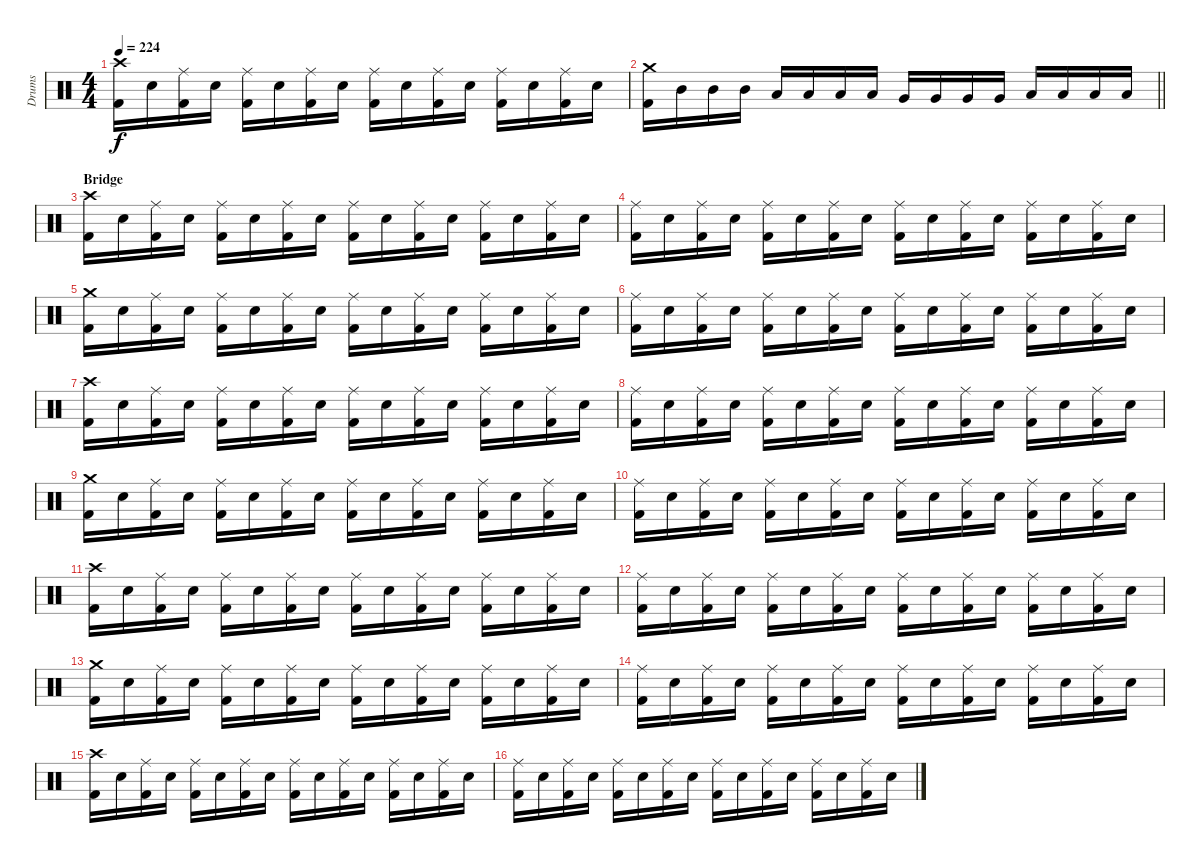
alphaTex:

\track ("Drums" "Drums") {instrument percussion}
\staff {score}
\articulation defaults
\ts (4 4)
\tempo 224
\clef neutral
\ks c
("Crash high (hit)" "Kick (hit) 2").16{dy f} "Electric Snare (hit)".16 ("Ride (middle)" "Kick (hit) 2").16 "Electric Snare (hit)".16 ("Ride (middle)" "Kick (hit) 2").16 "Electric Snare (hit)".16 ("Ride (middle)" "Kick (hit) 2").16 "Electric Snare (hit)".16 ("Ride (middle)" "Kick (hit) 2").16 "Electric Snare (hit)".16 ("Ride (middle)" "Kick (hit) 2").16 "Electric Snare (hit)".16 ("Ride (middle)" "Kick (hit) 2").16 "Electric Snare (hit)".16 ("Ride (middle)" "Kick (hit) 2").16 "Electric Snare (hit)".16 |
\barLineRight lightlight
("Crash medium (hit)" "Kick (hit) 2").16 "Mid Tom (hit)".16 "Mid Tom (hit)".16 "Mid Tom (hit)".16 "Low Tom (hit)".16 "Low Tom (hit)".16 "Low Tom (hit)".16 "Low Tom (hit)".16 "Very Low Tom (hit)".16 "Very Low Tom (hit)".16 "Very Low Tom (hit)".16 "Very Low Tom (hit)".16 "Low Floor Tom (hit)".16 "Low Floor Tom (hit)".16 "Low Floor Tom (hit)".16 "Low Floor Tom (hit)".16 |
\section ("" "Bridge")
("Crash high (hit)" "Kick (hit) 2").16 "Electric Snare (hit)".16 ("Ride (middle)" "Kick (hit) 2").16 "Electric Snare (hit)".16 ("Ride (middle)" "Kick (hit) 2").16 "Electric Snare (hit)".16 ("Ride (middle)" "Kick (hit) 2").16 "Electric Snare (hit)".16 ("Ride (middle)" "Kick (hit) 2").16 "Electric Snare (hit)".16 ("Ride (middle)" "Kick (hit) 2").16 "Electric Snare (hit)".16 ("Ride (middle)" "Kick (hit) 2").16 "Electric Snare (hit)".16 ("Ride (middle)" "Kick (hit) 2").16 "Electric Snare (hit)".16 |
("Ride (middle)" "Kick (hit) 2").16 "Electric Snare (hit)".16 ("Ride (middle)" "Kick (hit) 2").16 "Electric Snare (hit)".16 ("Ride (middle)" "Kick (hit) 2").16 "Electric Snare (hit)".16 ("Ride (middle)" "Kick (hit) 2").16 "Electric Snare (hit)".16 ("Ride (middle)" "Kick (hit) 2").16 "Electric Snare (hit)".16 ("Ride (middle)" "Kick (hit) 2").16 "Electric Snare (hit)".16 ("Ride (middle)" "Kick (hit) 2").16 "Electric Snare (hit)".16 ("Ride (middle)" "Kick (hit) 2").16 "Electric Snare (hit)".16 |
("Crash medium (hit)" "Kick (hit) 2").16 "Electric Snare (hit)".16 ("Ride (middle)" "Kick (hit) 2").16 "Electric Snare (hit)".16 ("Ride (middle)" "Kick (hit) 2").16 "Electric Snare (hit)".16 ("Ride (middle)" "Kick (hit) 2").16 "Electric Snare (hit)".16 ("Ride (middle)" "Kick (hit) 2").16 "Electric Snare (hit)".16 ("Ride (middle)" "Kick (hit) 2").16 "Electric Snare (hit)".16 ("Ride (middle)" "Kick (hit) 2").16 "Electric Snare (hit)".16 ("Ride (middle)" "Kick (hit) 2").16 "Electric Snare (hit)".16 |
("Ride (middle)" "Kick (hit) 2").16 "Electric Snare (hit)".16 ("Ride (middle)" "Kick (hit) 2").16 "Electric Snare (hit)".16 ("Ride (middle)" "Kick (hit) 2").16 "Electric Snare (hit)".16 ("Ride (middle)" "Kick (hit) 2").16 "Electric Snare (hit)".16 ("Ride (middle)" "Kick (hit) 2").16 "Electric Snare (hit)".16 ("Ride (middle)" "Kick (hit) 2").16 "Electric Snare (hit)".16 ("Ride (middle)" "Kick (hit) 2").16 "Electric Snare (hit)".16 ("Ride (middle)" "Kick (hit) 2").16 "Electric Snare (hit)".16 |
("Crash high (hit)" "Kick (hit) 2").16 "Electric Snare (hit)".16 ("Ride (middle)" "Kick (hit) 2").16 "Electric Snare (hit)".16 ("Ride (middle)" "Kick (hit) 2").16 "Electric Snare (hit)".16 ("Ride (middle)" "Kick (hit) 2").16 "Electric Snare (hit)".16 ("Ride (middle)" "Kick (hit) 2").16 "Electric Snare (hit)".16 ("Ride (middle)" "Kick (hit) 2").16 "Electric Snare (hit)".16 ("Ride (middle)" "Kick (hit) 2").16 "Electric Snare (hit)".16 ("Ride (middle)" "Kick (hit) 2").16 "Electric Snare (hit)".16 |
("Ride (middle)" "Kick (hit) 2").16 "Electric Snare (hit)".16 ("Ride (middle)" "Kick (hit) 2").16 "Electric Snare (hit)".16 ("Ride (middle)" "Kick (hit) 2").16 "Electric Snare (hit)".16 ("Ride (middle)" "Kick (hit) 2").16 "Electric Snare (hit)".16 ("Ride (middle)" "Kick (hit) 2").16 "Electric Snare (hit)".16 ("Ride (middle)" "Kick (hit) 2").16 "Electric Snare (hit)".16 ("Ride (middle)" "Kick (hit) 2").16 "Electric Snare (hit)".16 ("Ride (middle)" "Kick (hit) 2").16 "Electric Snare (hit)".16 |
("Crash medium (hit)" "Kick (hit) 2").16 "Electric Snare (hit)".16 ("Ride (middle)" "Kick (hit) 2").16 "Electric Snare (hit)".16 ("Ride (middle)" "Kick (hit) 2").16 "Electric Snare (hit)".16 ("Ride (middle)" "Kick (hit) 2").16 "Electric Snare (hit)".16 ("Ride (middle)" "Kick (hit) 2").16 "Electric Snare (hit)".16 ("Ride (middle)" "Kick (hit) 2").16 "Electric Snare (hit)".16 ("Ride (middle)" "Kick (hit) 2").16 "Electric Snare (hit)".16 ("Ride (middle)" "Kick (hit) 2").16 "Electric Snare (hit)".16 |
("Ride (middle)" "Kick (hit) 2").16 "Electric Snare (hit)".16 ("Ride (middle)" "Kick (hit) 2").16 "Electric Snare (hit)".16 ("Ride (middle)" "Kick (hit) 2").16 "Electric Snare (hit)".16 ("Ride (middle)" "Kick (hit) 2").16 "Electric Snare (hit)".16 ("Ride (middle)" "Kick (hit) 2").16 "Electric Snare (hit)".16 ("Ride (middle)" "Kick (hit) 2").16 "Electric Snare (hit)".16 ("Ride (middle)" "Kick (hit) 2").16 "Electric Snare (hit)".16 ("Ride (middle)" "Kick (hit) 2").16 "Electric Snare (hit)".16 |
("Crash high (hit)" "Kick (hit) 2").16 "Electric Snare (hit)".16 ("Ride (middle)" "Kick (hit) 2").16 "Electric Snare (hit)".16 ("Ride (middle)" "Kick (hit) 2").16 "Electric Snare (hit)".16 ("Ride (middle)" "Kick (hit) 2").16 "Electric Snare (hit)".16 ("Ride (middle)" "Kick (hit) 2").16 "Electric Snare (hit)".16 ("Ride (middle)" "Kick (hit) 2").16 "Electric Snare (hit)".16 ("Ride (middle)" "Kick (hit) 2").16 "Electric Snare (hit)".16 ("Ride (middle)" "Kick (hit) 2").16 "Electric Snare (hit)".16 |
("Ride (middle)" "Kick (hit) 2").16 "Electric Snare (hit)".16 ("Ride (middle)" "Kick (hit) 2").16 "Electric Snare (hit)".16 ("Ride (middle)" "Kick (hit) 2").16 "Electric Snare (hit)".16 ("Ride (middle)" "Kick (hit) 2").16 "Electric Snare (hit)".16 ("Ride (middle)" "Kick (hit) 2").16 "Electric Snare (hit)".16 ("Ride (middle)" "Kick (hit) 2").16 "Electric Snare (hit)".16 ("Ride (middle)" "Kick (hit) 2").16 "Electric Snare (hit)".16 ("Ride (middle)" "Kick (hit) 2").16 "Electric Snare (hit)".16 |
("Crash medium (hit)" "Kick (hit) 2").16 "Electric Snare (hit)".16 ("Ride (middle)" "Kick (hit) 2").16 "Electric Snare (hit)".16 ("Ride (middle)" "Kick (hit) 2").16 "Electric Snare (hit)".16 ("Ride (middle)" "Kick (hit) 2").16 "Electric Snare (hit)".16 ("Ride (middle)" "Kick (hit) 2").16 "Electric Snare (hit)".16 ("Ride (middle)" "Kick (hit) 2").16 "Electric Snare (hit)".16 ("Ride (middle)" "Kick (hit) 2").16 "Electric Snare (hit)".16 ("Ride (middle)" "Kick (hit) 2").16 "Electric Snare (hit)".16 |
("Ride (middle)" "Kick (hit) 2").16 "Electric Snare (hit)".16 ("Ride (middle)" "Kick (hit) 2").16 "Electric Snare (hit)".16 ("Ride (middle)" "Kick (hit) 2").16 "Electric Snare (hit)".16 ("Ride (middle)" "Kick (hit) 2").16 "Electric Snare (hit)".16 ("Ride (middle)" "Kick (hit) 2").16 "Electric Snare (hit)".16 ("Ride (middle)" "Kick (hit) 2").16 "Electric Snare (hit)".16 ("Ride (middle)" "Kick (hit) 2").16 "Electric Snare (hit)".16 ("Ride (middle)" "Kick (hit) 2").16 "Electric Snare (hit)".16 |
("Crash high (hit)" "Kick (hit) 2").16 "Electric Snare (hit)".16 ("Ride (middle)" "Kick (hit) 2").16 "Electric Snare (hit)".16 ("Ride (middle)" "Kick (hit) 2").16 "Electric Snare (hit)".16 ("Ride (middle)" "Kick (hit) 2").16 "Electric Snare (hit)".16 ("Ride (middle)" "Kick (hit) 2").16 "Electric Snare (hit)".16 ("Ride (middle)" "Kick (hit) 2").16 "Electric Snare (hit)".16 ("Ride (middle)" "Kick (hit) 2").16 "Electric Snare (hit)".16 ("Ride (middle)" "Kick (hit) 2").16 "Electric Snare (hit)".16 |
("Ride (middle)" "Kick (hit) 2").16 "Electric Snare (hit)".16 ("Ride (middle)" "Kick (hit) 2").16 "Electric Snare (hit)".16 ("Ride (middle)" "Kick (hit) 2").16 "Electric Snare (hit)".16 ("Ride (middle)" "Kick (hit) 2").16 "Electric Snare (hit)".16 ("Ride (middle)" "Kick (hit) 2").16 "Electric Snare (hit)".16 ("Ride (middle)" "Kick (hit) 2").16 "Electric Snare (hit)".16 ("Ride (middle)" "Kick (hit) 2").16 "Electric Snare (hit)".16 ("Ride (middle)" "Kick (hit) 2").16 "Electric Snare (hit)".16
